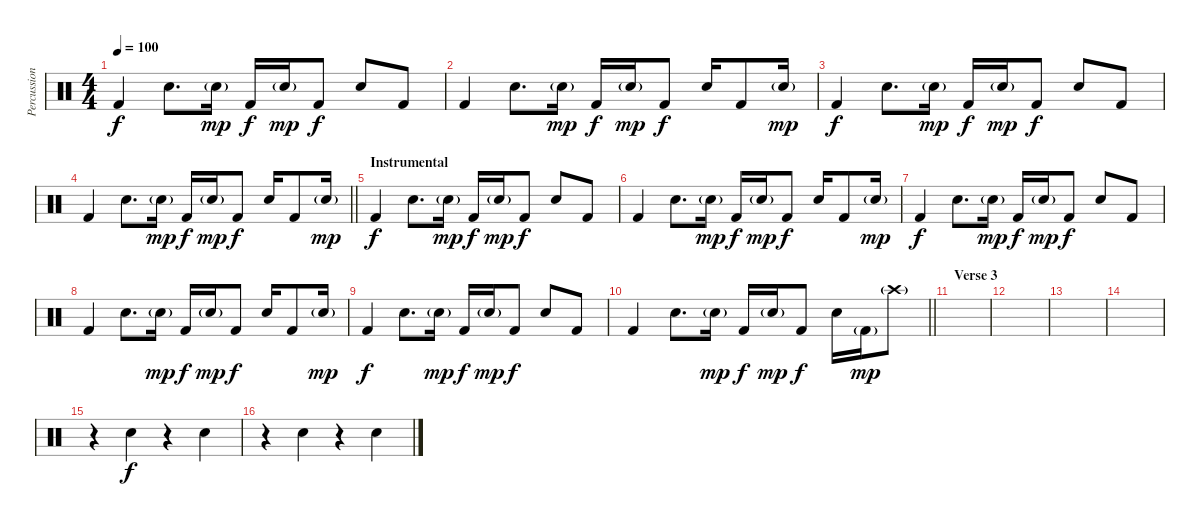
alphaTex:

\track ("Percussion" "Percussion") {instrument percussion}
\staff {score}
\articulation defaults
\ts (4 4)
\tempo 100
\clef neutral
\ks c "Kick (hit) 2".4{dy f} "Snare (hit) 2".8{d} "Snare (hit) 2"{g}.16{dy mp} "Kick (hit) 2".16{dy f} "Snare (hit) 2"{g}.16{dy mp} "Kick (hit) 2".8{dy f} "Snare (hit) 2".8 "Kick (hit) 2".8
|
"Kick (hit) 2".4 "Snare (hit) 2".8{d} "Snare (hit) 2"{g}.16{dy mp} "Kick (hit) 2".16{dy f} "Snare (hit) 2"{g}.16{dy mp} "Kick (hit) 2".8{dy f} "Snare (hit) 2".16 "Kick (hit) 2".8 "Snare (hit) 2"{g}.16{dy mp} |
"Kick (hit) 2".4{dy f} "Snare (hit) 2".8{d} "Snare (hit) 2"{g}.16{dy mp} "Kick (hit) 2".16{dy f} "Snare (hit) 2"{g}.16{dy mp} "Kick (hit) 2".8{dy f} "Snare (hit) 2".8 "Kick (hit) 2".8 |
\barLineRight lightlight "Kick (hit) 2".4 "Snare (hit) 2".8{d} "Snare (hit) 2"{g}.16{dy mp} "Kick (hit) 2".16{dy f} "Snare (hit) 2"{g}.16{dy mp} "Kick (hit) 2".8{dy f} "Snare (hit) 2".16 "Kick (hit) 2".8 "Snare (hit) 2"{g}.16{dy mp}
|
\section ("" "Instrumental")
"Kick (hit) 2".4{dy f} "Snare (hit) 2".8{d} "Snare (hit) 2"{g}.16{dy mp} "Kick (hit) 2".16{dy f} "Snare (hit) 2"{g}.16{dy mp} "Kick (hit) 2".8{dy f} "Snare (hit) 2".8 "Kick (hit) 2".8 |
"Kick (hit) 2".4 "Snare (hit) 2".8{d} "Snare (hit) 2"{g}.16{dy mp} "Kick (hit) 2".16{dy f} "Snare (hit) 2"{g}.16{dy mp} "Kick (hit) 2".8{dy f} "Snare (hit) 2".16 "Kick (hit) 2".8 "Snare (hit) 2"{g}.16{dy mp} |
"Kick (hit) 2".4{dy f} "Snare (hit) 2".8{d} "Snare (hit) 2"{g}.16{dy mp} "Kick (hit) 2".16{dy f} "Snare (hit) 2"{g}.16{dy mp} "Kick (hit) 2".8{dy f} "Snare (hit) 2".8 "Kick (hit) 2".8 |
"Kick (hit) 2".4 "Snare (hit) 2".8{d} "Snare (hit) 2"{g}.16{dy mp} "Kick (hit) 2".16{dy f} "Snare (hit) 2"{g}.16{dy mp} "Kick (hit) 2".8{dy f} "Snare (hit) 2".16 "Kick (hit) 2".8 "Snare (hit) 2"{g}.16{dy mp} |
"Kick (hit) 2".4{dy f} "Snare (hit) 2".8{d} "Snare (hit) 2"{g}.16{dy mp} "Kick (hit) 2".16{dy f} "Snare (hit) 2"{g}.16{dy mp} "Kick (hit) 2".8{dy f} "Snare (hit) 2".8 "Kick (hit) 2".8 |
\barLineRight lightlight "Kick (hit) 2".4 "Snare (hit) 2".8{d} "Snare (hit) 2"{g}.16{dy mp} "Kick (hit) 2".16{dy f} "Snare (hit) 2"{g}.16{dy mp} "Kick (hit) 2".8{dy f} "Snare (hit) 2".16 "Kick (hit) 2"{g}.16{dy mp} "Crash high (hit)"{g}.8
|
\section ("" "Verse 3")
|
|
|
|
r.4 "Snare (hit) 2".4{dy f} r.4 "Snare (hit) 2".4 |
r.4 "Snare (hit) 2".4 r.4 "Snare (hit) 2".4
